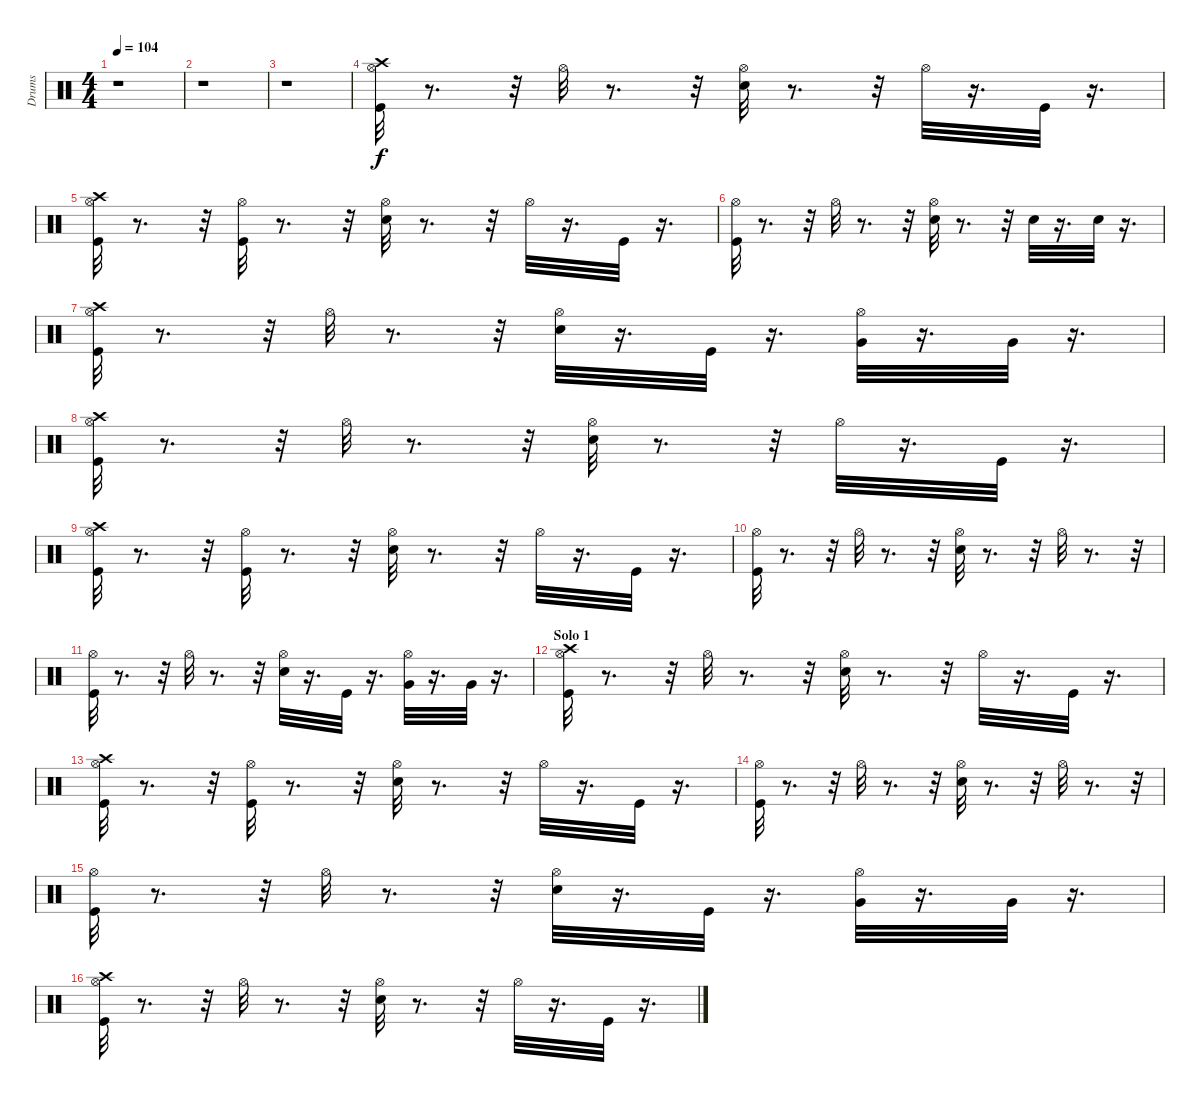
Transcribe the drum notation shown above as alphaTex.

\track ("Drums" "Drums") {instrument percussion}
\staff {score}
\articulation defaults
\ts (4 4)
\tempo 104
\clef neutral
\ks c
r.1{dy f} |
r.1 |
r.1 |
("Crash high (hit)" "Hi-Hat (open)" "Kick (hit)").32 r.8{d} r.32 "Hi-Hat (open)".32 r.8{d} r.32 ("Hi-Hat (open)" "Electric Snare (hit)").32 r.8{d} r.32 "Hi-Hat (open)".32 r.16{d} "Kick (hit)".32 r.16{d} |
("Crash high (hit)" "Hi-Hat (open)" "Kick (hit)").32 r.8{d} r.32 ("Kick (hit)" "Hi-Hat (open)").32 r.8{d} r.32 ("Hi-Hat (open)" "Electric Snare (hit)").32 r.8{d} r.32 "Hi-Hat (open)".32 r.16{d} "Kick (hit)".32 r.16{d} |
("Hi-Hat (open)" "Kick (hit)").32 r.8{d} r.32 "Hi-Hat (open)".32 r.8{d} r.32 ("Electric Snare (hit)" "Hi-Hat (open)").32 r.8{d} r.32 "Electric Snare (hit)".32 r.16{d} "Electric Snare (hit)".32 r.16{d} |
("Crash high (hit)" "Hi-Hat (open)" "Kick (hit)").32 r.8{d} r.32 "Hi-Hat (open)".32 r.8{d} r.32 ("Hi-Hat (open)" "Electric Snare (hit)").32 r.16{d} "Kick (hit)".32 r.16{d} ("Very Low Tom (hit)" "Hi-Hat (open)").32 r.16{d} "Very Low Tom (hit)".32 r.16{d} |
("Crash high (hit)" "Hi-Hat (open)" "Kick (hit)").32 r.8{d} r.32 "Hi-Hat (open)".32 r.8{d} r.32 ("Hi-Hat (open)" "Electric Snare (hit)").32 r.8{d} r.32 "Hi-Hat (open)".32 r.16{d} "Kick (hit)".32 r.16{d} |
("Crash high (hit)" "Hi-Hat (open)" "Kick (hit)").32 r.8{d} r.32 ("Kick (hit)" "Hi-Hat (open)").32 r.8{d} r.32 ("Hi-Hat (open)" "Electric Snare (hit)").32 r.8{d} r.32 "Hi-Hat (open)".32 r.16{d} "Kick (hit)".32 r.16{d} |
("Hi-Hat (open)" "Kick (hit)").32 r.8{d} r.32 "Hi-Hat (open)".32 r.8{d} r.32 ("Electric Snare (hit)" "Hi-Hat (open)").32 r.8{d} r.32 "Hi-Hat (open)".32 r.8{d} r.32 |
("Hi-Hat (open)" "Kick (hit)").32 r.8{d} r.32 "Hi-Hat (open)".32 r.8{d} r.32 ("Hi-Hat (open)" "Electric Snare (hit)").32 r.16{d} "Kick (hit)".32 r.16{d} ("Very Low Tom (hit)" "Hi-Hat (open)").32 r.16{d} "Very Low Tom (hit)".32 r.16{d} |
\section ("" "Solo 1")
("Crash high (hit)" "Hi-Hat (open)" "Kick (hit)").32 r.8{d} r.32 "Hi-Hat (open)".32 r.8{d} r.32 ("Hi-Hat (open)" "Electric Snare (hit)").32 r.8{d} r.32 "Hi-Hat (open)".32 r.16{d} "Kick (hit)".32 r.16{d} |
("Crash high (hit)" "Hi-Hat (open)" "Kick (hit)").32 r.8{d} r.32 ("Kick (hit)" "Hi-Hat (open)").32 r.8{d} r.32 ("Hi-Hat (open)" "Electric Snare (hit)").32 r.8{d} r.32 "Hi-Hat (open)".32 r.16{d} "Kick (hit)".32 r.16{d} |
("Hi-Hat (open)" "Kick (hit)").32 r.8{d} r.32 "Hi-Hat (open)".32 r.8{d} r.32 ("Electric Snare (hit)" "Hi-Hat (open)").32 r.8{d} r.32 "Hi-Hat (open)".32 r.8{d} r.32 |
("Hi-Hat (open)" "Kick (hit)").32 r.8{d} r.32 "Hi-Hat (open)".32 r.8{d} r.32 ("Hi-Hat (open)" "Electric Snare (hit)").32 r.16{d} "Kick (hit)".32 r.16{d} ("Very Low Tom (hit)" "Hi-Hat (open)").32 r.16{d} "Very Low Tom (hit)".32 r.16{d} |
("Crash high (hit)" "Hi-Hat (open)" "Kick (hit)").32 r.8{d} r.32 "Hi-Hat (open)".32 r.8{d} r.32 ("Hi-Hat (open)" "Electric Snare (hit)").32 r.8{d} r.32 "Hi-Hat (open)".32 r.16{d} "Kick (hit)".32 r.16{d}
